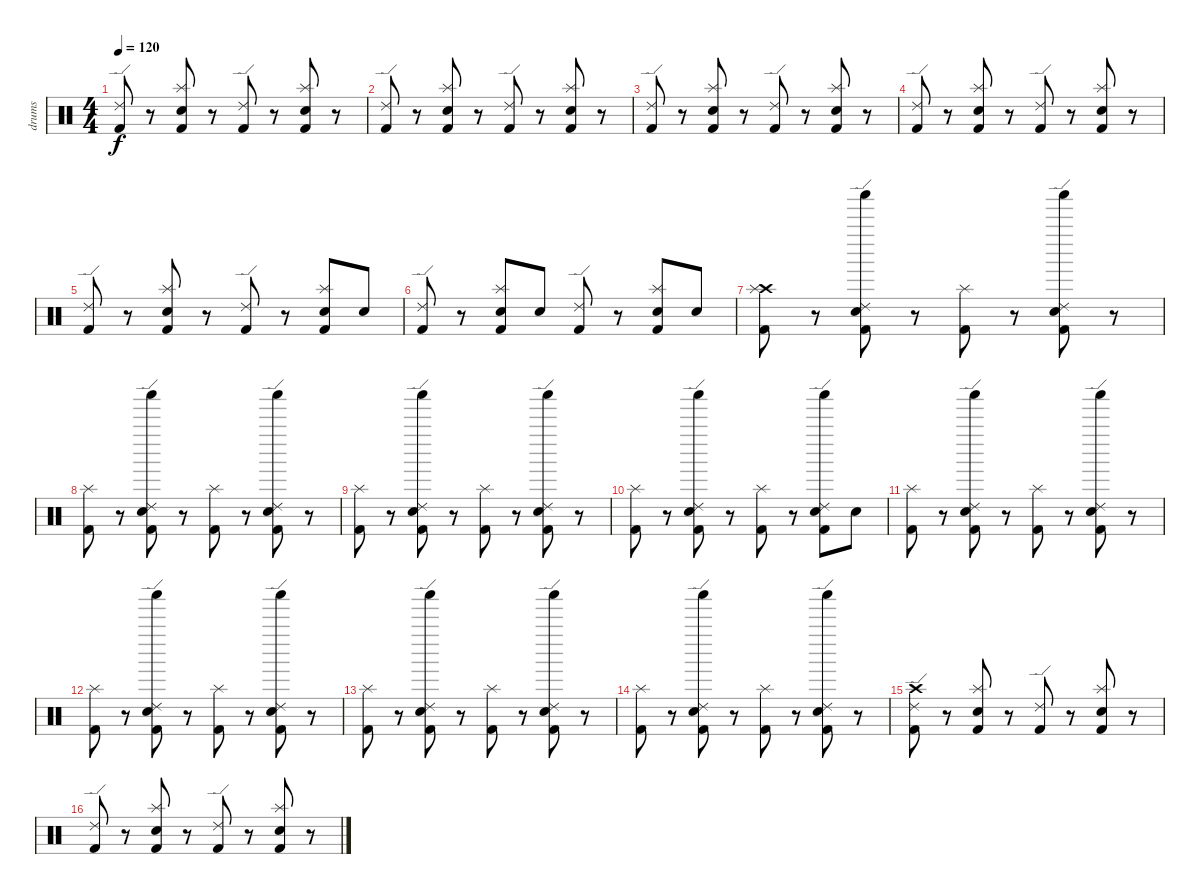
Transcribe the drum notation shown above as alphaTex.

\track ("drums" "drums") {instrument percussion}
\staff {score}
\articulation defaults
\ts (4 4)
\tempo 120
\clef neutral
\ks c
("Ride (edge) 2" "Kick (hit) 2").8{dy f} r.8 ("Splash (hit)" "Snare (hit) 2" "Kick (hit) 2").8 r.8 ("Ride (edge) 2" "Kick (hit) 2").8 r.8 ("Splash (hit)" "Snare (hit) 2" "Kick (hit) 2").8 r.8 |
("Ride (edge) 2" "Kick (hit) 2").8 r.8 ("Splash (hit)" "Snare (hit) 2" "Kick (hit) 2").8 r.8 ("Ride (edge) 2" "Kick (hit) 2").8 r.8 ("Splash (hit)" "Snare (hit) 2" "Kick (hit) 2").8 r.8 |
("Ride (edge) 2" "Kick (hit) 2").8 r.8 ("Splash (hit)" "Snare (hit) 2" "Kick (hit) 2").8 r.8 ("Ride (edge) 2" "Kick (hit) 2").8 r.8 ("Splash (hit)" "Snare (hit) 2" "Kick (hit) 2").8 r.8 |
("Ride (edge) 2" "Kick (hit) 2").8 r.8 ("Splash (hit)" "Snare (hit) 2" "Kick (hit) 2").8 r.8 ("Ride (edge) 2" "Kick (hit) 2").8 r.8 ("Splash (hit)" "Snare (hit) 2" "Kick (hit) 2").8 r.8 |
("Ride (edge) 2" "Kick (hit) 2").8 r.8 ("Splash (hit)" "Snare (hit) 2" "Kick (hit) 2").8 r.8 ("Ride (edge) 2" "Kick (hit) 2").8 r.8 ("Splash (hit)" "Snare (hit) 2" "Kick (hit) 2").8 "Snare (hit) 2".8 |
("Ride (edge) 2" "Kick (hit) 2").8 r.8 ("Splash (hit)" "Snare (hit) 2" "Kick (hit) 2").8 "Snare (hit) 2".8 ("Ride (edge) 2" "Kick (hit) 2").8 r.8 ("Splash (hit)" "Snare (hit) 2" "Kick (hit) 2").8 "Snare (hit) 2".8 |
("Crash high (hit)" "Splash (hit)" "Kick (hit) 2").8 r.8 ("Shaker (hit)" "Ride (edge) 2" "Snare (hit) 2" "Kick (hit) 2").8 r.8 ("Splash (hit)" "Kick (hit) 2").8 r.8 ("Shaker (hit)" "Ride (edge) 2" "Snare (hit) 2" "Kick (hit) 2").8 r.8 |
("Splash (hit)" "Kick (hit) 2").8 r.8 ("Shaker (hit)" "Ride (edge) 2" "Snare (hit) 2" "Kick (hit) 2").8 r.8 ("Splash (hit)" "Kick (hit) 2").8 r.8 ("Shaker (hit)" "Ride (edge) 2" "Snare (hit) 2" "Kick (hit) 2").8 r.8 |
("Splash (hit)" "Kick (hit) 2").8 r.8 ("Shaker (hit)" "Ride (edge) 2" "Snare (hit) 2" "Kick (hit) 2").8 r.8 ("Splash (hit)" "Kick (hit) 2").8 r.8 ("Shaker (hit)" "Ride (edge) 2" "Snare (hit) 2" "Kick (hit) 2").8 r.8 |
("Splash (hit)" "Kick (hit) 2").8 r.8 ("Shaker (hit)" "Ride (edge) 2" "Snare (hit) 2" "Kick (hit) 2").8 r.8 ("Splash (hit)" "Kick (hit) 2").8 r.8 ("Shaker (hit)" "Ride (edge) 2" "Snare (hit) 2" "Kick (hit) 2").8 "Snare (hit) 2".8 |
("Splash (hit)" "Kick (hit) 2").8 r.8 ("Shaker (hit)" "Ride (edge) 2" "Snare (hit) 2" "Kick (hit) 2").8 r.8 ("Splash (hit)" "Kick (hit) 2").8 r.8 ("Shaker (hit)" "Ride (edge) 2" "Snare (hit) 2" "Kick (hit) 2").8 r.8 |
("Splash (hit)" "Kick (hit) 2").8 r.8 ("Shaker (hit)" "Ride (edge) 2" "Snare (hit) 2" "Kick (hit) 2").8 r.8 ("Splash (hit)" "Kick (hit) 2").8 r.8 ("Shaker (hit)" "Ride (edge) 2" "Snare (hit) 2" "Kick (hit) 2").8 r.8 |
("Splash (hit)" "Kick (hit) 2").8 r.8 ("Shaker (hit)" "Ride (edge) 2" "Snare (hit) 2" "Kick (hit) 2").8 r.8 ("Splash (hit)" "Kick (hit) 2").8 r.8 ("Shaker (hit)" "Ride (edge) 2" "Snare (hit) 2" "Kick (hit) 2").8 r.8 |
("Splash (hit)" "Kick (hit) 2").8 r.8 ("Shaker (hit)" "Ride (edge) 2" "Snare (hit) 2" "Kick (hit) 2").8 r.8 ("Splash (hit)" "Kick (hit) 2").8 r.8 ("Shaker (hit)" "Ride (edge) 2" "Snare (hit) 2" "Kick (hit) 2").8 r.8 |
("Crash high (hit)" "Ride (edge) 2" "Kick (hit) 2").8 r.8 ("Splash (hit)" "Snare (hit) 2" "Kick (hit) 2").8 r.8 ("Ride (edge) 2" "Kick (hit) 2").8 r.8 ("Splash (hit)" "Snare (hit) 2" "Kick (hit) 2").8 r.8 |
("Ride (edge) 2" "Kick (hit) 2").8 r.8 ("Splash (hit)" "Snare (hit) 2" "Kick (hit) 2").8 r.8 ("Ride (edge) 2" "Kick (hit) 2").8 r.8 ("Splash (hit)" "Snare (hit) 2" "Kick (hit) 2").8 r.8
